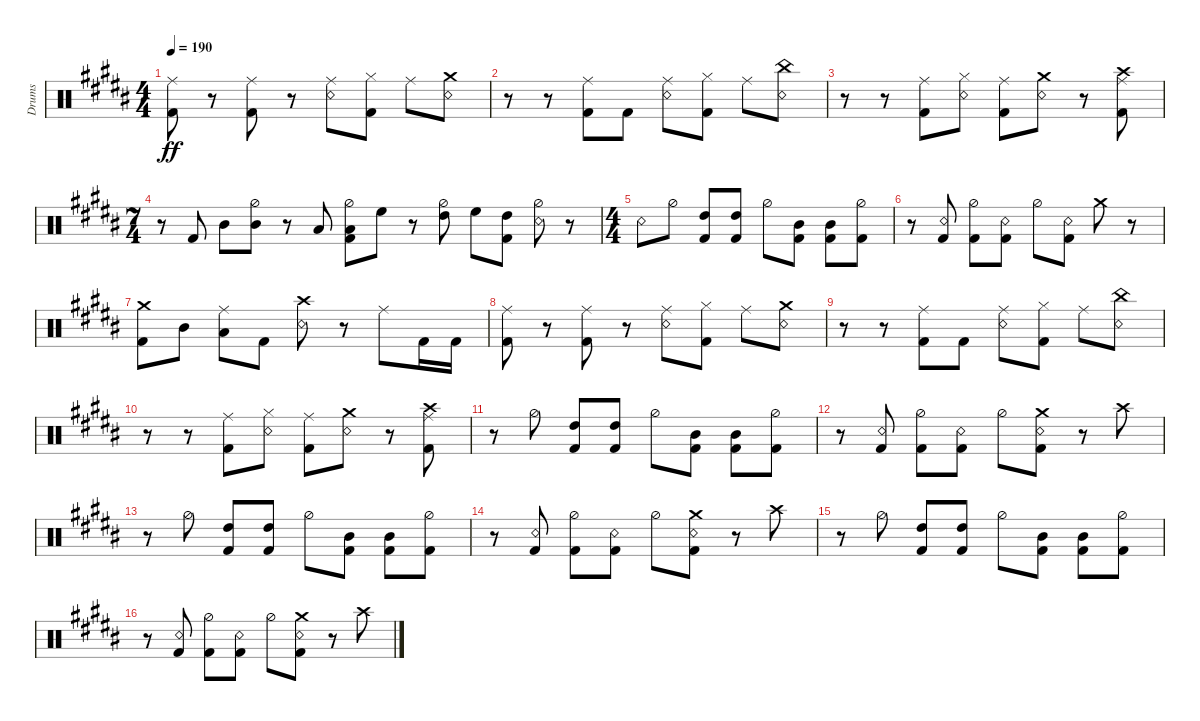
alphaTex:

\bracketExtendMode groupsimilarinstruments
\otherSystemsTrackNameOrientation horizontal
\track ("Drumkit" "Drums") {instrument percussion}
\staff {score}
\articulation defaults
\ts (4 4)
\tempo 190
\clef neutral
\ks b
("Kick (hit) 2"{acc forcenatural} "Ride (middle)"{acc forcenatural}).8{dy ff} r.8 ("Kick (hit) 2"{acc forcenatural} "Ride (middle)"{acc forcenatural}).8 r.8 ("Snare (rim shot)"{acc forcenatural} "Ride (middle)"{acc forcenatural}).8 ("Kick (hit) 2"{acc forcenatural} "Hi-Hat (closed)"{acc forcenatural}).8 "Ride (middle)"{acc forcenatural}.8 ("Snare (rim shot)"{acc forcenatural} "Crash medium (hit)"{acc forcenatural}).8 |
r.8 r.8 ("Kick (hit) 2"{acc forcenatural} "Ride (middle)"{acc forcenatural}).8 "Kick (hit) 2"{acc forcenatural}.8 ("Snare (rim shot)"{acc forcenatural} "Ride (middle)"{acc forcenatural}).8 ("Kick (hit) 2"{acc forcenatural} "Hi-Hat (closed)"{acc forcenatural}).8 "Ride (middle)"{acc forcenatural}.8 ("Snare (rim shot)"{acc forcenatural} "China (hit)"{acc forcenatural}).8 |
r.8 r.8 ("Kick (hit) 2"{acc forcenatural} "Ride (middle)"{acc forcenatural}).8 ("Snare (rim shot)"{acc forcenatural} "Hi-Hat (closed)"{acc forcenatural}).8 ("Kick (hit) 2"{acc forcenatural} "Ride (middle)"{acc forcenatural}).8 ("Snare (rim shot)"{acc forcenatural} "Crash medium (hit)"{acc forcenatural}).8 r.8 ("Kick (hit) 2"{acc forcenatural} "Ride (middle)"{acc forcenatural} "Crash high (hit)"{acc forcenatural}).8 |
\ts (7 4)
r.8 "Kick (hit) 2"{acc forcenatural}.8 "Mid Tom (hit)"{acc forcenatural}.8 ("Hi-Hat (half)"{acc forcenatural} "Mid Tom (hit)"{acc forcenatural}).8 r.8 "Low Tom (hit)"{acc forcenatural}.8 ("Hi-Hat (half)"{acc forcenatural} "Kick (hit) 2"{acc forcenatural} "Low Tom (hit)"{acc forcenatural}).8 "High Floor Tom (hit)"{acc forcenatural}.8 r.8 ("Hi-Hat (half)"{acc forcenatural} "High Tom (hit)"{acc forcenatural}).8 "High Floor Tom (hit)"{acc forcenatural}.8 ("Kick (hit) 2"{acc forcenatural} "High Tom (hit)"{acc forcenatural}).8 ("Snare (rim shot)"{acc forcenatural} "Hi-Hat (half)"{acc forcenatural}).8 r.8 |
\ts (4 4)
"Snare (rim shot)"{acc forcenatural}.8 "Hi-Hat (half)"{acc forcenatural}.8 ("Kick (hit) 2"{acc forcenatural} "High Tom (hit)"{acc forcenatural}).8 ("Kick (hit) 2"{acc forcenatural} "High Tom (hit)"{acc forcenatural}).8 "Hi-Hat (half)"{acc forcenatural}.8 ("Kick (hit) 2"{acc forcenatural} "Mid Tom (hit)"{acc forcenatural}).8 ("Kick (hit) 2"{acc forcenatural} "Mid Tom (hit)"{acc forcenatural}).8 ("Kick (hit) 2"{acc forcenatural} "Hi-Hat (half)"{acc forcenatural}).8 |
r.8 ("Kick (hit) 2"{acc forcenatural} "Snare (rim shot)"{acc forcenatural}).8 ("Kick (hit) 2"{acc forcenatural} "Hi-Hat (half)"{acc forcenatural}).8 ("Kick (hit) 2"{acc forcenatural} "Snare (rim shot)"{acc forcenatural}).8 "Hi-Hat (half)"{acc forcenatural}.8 ("Kick (hit) 2"{acc forcenatural} "Snare (rim shot)"{acc forcenatural}).8 "Crash medium (hit)"{acc forcenatural}.8 r.8 |
("Crash medium (hit)"{acc forcenatural} "Kick (hit) 2"{acc forcenatural}).8 "Mid Tom (hit)"{acc forcenatural}.8 ("Low Tom (hit)"{acc forcenatural} "Ride (middle)"{acc forcenatural}).8 "Kick (hit) 2"{acc forcenatural}.8 ("Snare (rim shot)"{acc forcenatural} "Crash high (hit)"{acc forcenatural}).8 r.8 "Ride (middle)"{acc forcenatural}.8 "Kick (hit) 2"{acc forcenatural}.16 "Kick (hit) 2"{acc forcenatural}.16 |
("Kick (hit) 2"{acc forcenatural} "Ride (middle)"{acc forcenatural}).8 r.8 ("Kick (hit) 2"{acc forcenatural} "Ride (middle)"{acc forcenatural}).8 r.8 ("Snare (rim shot)"{acc forcenatural} "Ride (middle)"{acc forcenatural}).8 ("Kick (hit) 2"{acc forcenatural} "Hi-Hat (closed)"{acc forcenatural}).8 "Ride (middle)"{acc forcenatural}.8 ("Snare (rim shot)"{acc forcenatural} "Crash medium (hit)"{acc forcenatural}).8 |
r.8 r.8 ("Kick (hit) 2"{acc forcenatural} "Ride (middle)"{acc forcenatural}).8 "Kick (hit) 2"{acc forcenatural}.8 ("Snare (rim shot)"{acc forcenatural} "Ride (middle)"{acc forcenatural}).8 ("Kick (hit) 2"{acc forcenatural} "Hi-Hat (closed)"{acc forcenatural}).8 "Ride (middle)"{acc forcenatural}.8 ("Snare (rim shot)"{acc forcenatural} "China (hit)"{acc forcenatural}).8 |
r.8 r.8 ("Kick (hit) 2"{acc forcenatural} "Ride (middle)"{acc forcenatural}).8 ("Snare (rim shot)"{acc forcenatural} "Hi-Hat (closed)"{acc forcenatural}).8 ("Kick (hit) 2"{acc forcenatural} "Ride (middle)"{acc forcenatural}).8 ("Snare (rim shot)"{acc forcenatural} "Crash medium (hit)"{acc forcenatural}).8 r.8 ("Kick (hit) 2"{acc forcenatural} "Ride (middle)"{acc forcenatural} "Crash high (hit)"{acc forcenatural}).8 |
r.8 "Hi-Hat (half)"{acc forcenatural}.8 ("Kick (hit) 2"{acc forcenatural} "High Tom (hit)"{acc forcenatural}).8 ("Kick (hit) 2"{acc forcenatural} "High Tom (hit)"{acc forcenatural}).8 "Hi-Hat (half)"{acc forcenatural}.8 ("Kick (hit) 2"{acc forcenatural} "Mid Tom (hit)"{acc forcenatural}).8 ("Kick (hit) 2"{acc forcenatural} "Mid Tom (hit)"{acc forcenatural}).8 ("Kick (hit) 2"{acc forcenatural} "Hi-Hat (half)"{acc forcenatural}).8 |
r.8 ("Kick (hit) 2"{acc forcenatural} "Snare (rim shot)"{acc forcenatural}).8 ("Kick (hit) 2"{acc forcenatural} "Hi-Hat (half)"{acc forcenatural}).8 ("Kick (hit) 2"{acc forcenatural} "Snare (rim shot)"{acc forcenatural}).8 "Hi-Hat (half)"{acc forcenatural}.8 ("Kick (hit) 2"{acc forcenatural} "Snare (rim shot)"{acc forcenatural} "Crash medium (hit)"{acc forcenatural}).8 r.8 "Crash high (hit)"{acc forcenatural}.8 |
r.8 "Hi-Hat (half)"{acc forcenatural}.8 ("Kick (hit) 2"{acc forcenatural} "High Tom (hit)"{acc forcenatural}).8 ("Kick (hit) 2"{acc forcenatural} "High Tom (hit)"{acc forcenatural}).8 "Hi-Hat (half)"{acc forcenatural}.8 ("Kick (hit) 2"{acc forcenatural} "Mid Tom (hit)"{acc forcenatural}).8 ("Kick (hit) 2"{acc forcenatural} "Mid Tom (hit)"{acc forcenatural}).8 ("Kick (hit) 2"{acc forcenatural} "Hi-Hat (half)"{acc forcenatural}).8 |
r.8 ("Kick (hit) 2"{acc forcenatural} "Snare (rim shot)"{acc forcenatural}).8 ("Kick (hit) 2"{acc forcenatural} "Hi-Hat (half)"{acc forcenatural}).8 ("Kick (hit) 2"{acc forcenatural} "Snare (rim shot)"{acc forcenatural}).8 "Hi-Hat (half)"{acc forcenatural}.8 ("Kick (hit) 2"{acc forcenatural} "Snare (rim shot)"{acc forcenatural} "Crash medium (hit)"{acc forcenatural}).8 r.8 "Crash high (hit)"{acc forcenatural}.8 |
r.8 "Hi-Hat (half)"{acc forcenatural}.8 ("Kick (hit) 2"{acc forcenatural} "High Tom (hit)"{acc forcenatural}).8 ("Kick (hit) 2"{acc forcenatural} "High Tom (hit)"{acc forcenatural}).8 "Hi-Hat (half)"{acc forcenatural}.8 ("Kick (hit) 2"{acc forcenatural} "Mid Tom (hit)"{acc forcenatural}).8 ("Kick (hit) 2"{acc forcenatural} "Mid Tom (hit)"{acc forcenatural}).8 ("Kick (hit) 2"{acc forcenatural} "Hi-Hat (half)"{acc forcenatural}).8 |
r.8 ("Kick (hit) 2"{acc forcenatural} "Snare (rim shot)"{acc forcenatural}).8 ("Kick (hit) 2"{acc forcenatural} "Hi-Hat (half)"{acc forcenatural}).8 ("Kick (hit) 2"{acc forcenatural} "Snare (rim shot)"{acc forcenatural}).8 "Hi-Hat (half)"{acc forcenatural}.8 ("Kick (hit) 2"{acc forcenatural} "Snare (rim shot)"{acc forcenatural} "Crash medium (hit)"{acc forcenatural}).8 r.8 "Crash high (hit)"{acc forcenatural}.8
